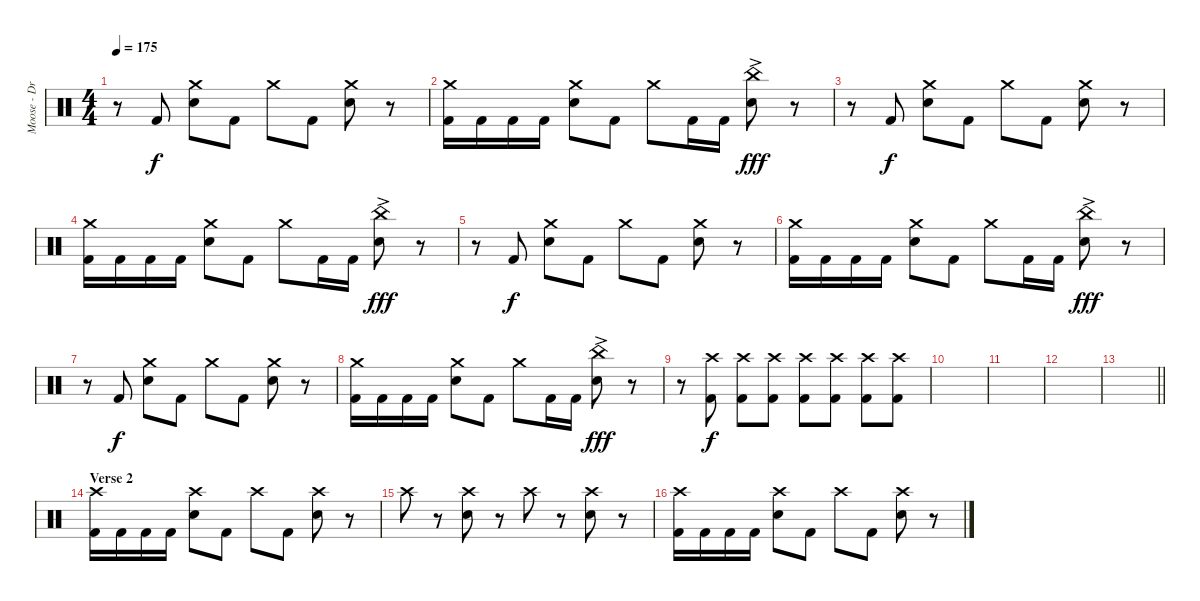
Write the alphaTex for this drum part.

\track ("Moose - Drums" "Moose - Dr") {instrument percussion}
\staff {score}
\articulation defaults
\ts (4 4)
\tempo 175
\clef neutral
\ks c
r.8{dy fff} "Kick (hit) 2".8{dy f} ("Crash medium (hit)" "Electric Snare (hit)").8 "Kick (hit) 2".8 "Crash medium (hit)".8 "Kick (hit) 2".8 ("Crash medium (hit)" "Electric Snare (hit)").8 r.8 |
("Crash medium (hit)" "Kick (hit) 2").16 "Kick (hit) 2".16 "Kick (hit) 2".16 "Kick (hit) 2".16 ("Crash medium (hit)" "Electric Snare (hit)").8 "Kick (hit) 2".8 "Crash medium (hit)".8 "Kick (hit) 2".16 "Kick (hit) 2".16 ("China (hit)"{ac} "Electric Snare (hit)").8{dy fff} r.8 |
r.8 "Kick (hit) 2".8{dy f} ("Crash medium (hit)" "Electric Snare (hit)").8 "Kick (hit) 2".8 "Crash medium (hit)".8 "Kick (hit) 2".8 ("Crash medium (hit)" "Electric Snare (hit)").8 r.8 |
("Crash medium (hit)" "Kick (hit) 2").16 "Kick (hit) 2".16 "Kick (hit) 2".16 "Kick (hit) 2".16 ("Crash medium (hit)" "Electric Snare (hit)").8 "Kick (hit) 2".8 "Crash medium (hit)".8 "Kick (hit) 2".16 "Kick (hit) 2".16 ("China (hit)"{ac} "Electric Snare (hit)").8{dy fff} r.8 |
r.8 "Kick (hit) 2".8{dy f} ("Crash medium (hit)" "Electric Snare (hit)").8 "Kick (hit) 2".8 "Crash medium (hit)".8 "Kick (hit) 2".8 ("Crash medium (hit)" "Electric Snare (hit)").8 r.8 |
("Crash medium (hit)" "Kick (hit) 2").16 "Kick (hit) 2".16 "Kick (hit) 2".16 "Kick (hit) 2".16 ("Crash medium (hit)" "Electric Snare (hit)").8 "Kick (hit) 2".8 "Crash medium (hit)".8 "Kick (hit) 2".16 "Kick (hit) 2".16 ("China (hit)"{ac} "Electric Snare (hit)").8{dy fff} r.8 |
r.8 "Kick (hit) 2".8{dy f} ("Crash medium (hit)" "Electric Snare (hit)").8 "Kick (hit) 2".8 "Crash medium (hit)".8 "Kick (hit) 2".8 ("Crash medium (hit)" "Electric Snare (hit)").8 r.8 |
("Crash medium (hit)" "Kick (hit) 2").16 "Kick (hit) 2".16 "Kick (hit) 2".16 "Kick (hit) 2".16 ("Crash medium (hit)" "Electric Snare (hit)").8 "Kick (hit) 2".8 "Crash medium (hit)".8 "Kick (hit) 2".16 "Kick (hit) 2".16 ("China (hit)"{ac} "Electric Snare (hit)").8{dy fff} r.8 |
r.8 ("Crash high (hit)" "Kick (hit) 2").8{dy f} ("Crash high (hit)" "Kick (hit) 2").8 ("Crash high (hit)" "Kick (hit) 2").8 ("Crash high (hit)" "Kick (hit) 2").8 ("Crash high (hit)" "Kick (hit) 2").8 ("Crash high (hit)" "Kick (hit) 2").8 ("Crash high (hit)" "Kick (hit) 2").8 |
|
|
|
\barLineRight lightlight
|
\section ("" "Verse 2")
("Crash high (hit)" "Kick (hit) 2").16 "Kick (hit) 2".16 "Kick (hit) 2".16 "Kick (hit) 2".16 ("Crash high (hit)" "Electric Snare (hit)").8 "Kick (hit) 2".8 "Crash high (hit)".8 "Kick (hit) 2".8 ("Crash high (hit)" "Electric Snare (hit)").8 r.8 |
"Crash high (hit)".8 r.8 ("Crash high (hit)" "Electric Snare (hit)").8 r.8 "Crash high (hit)".8 r.8 ("Crash high (hit)" "Electric Snare (hit)").8 r.8 |
("Crash high (hit)" "Kick (hit) 2").16 "Kick (hit) 2".16 "Kick (hit) 2".16 "Kick (hit) 2".16 ("Crash high (hit)" "Electric Snare (hit)").8 "Kick (hit) 2".8 "Crash high (hit)".8 "Kick (hit) 2".8 ("Crash high (hit)" "Electric Snare (hit)").8 r.8
